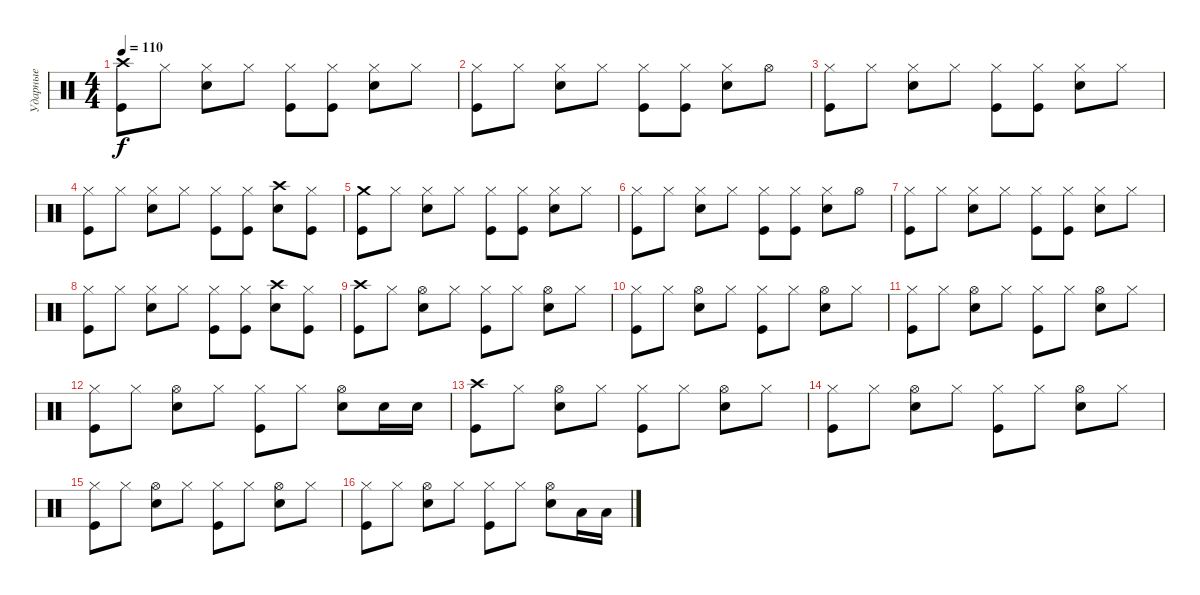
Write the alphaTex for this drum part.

\track ("Ударные" "Ударные") {solo instrument percussion}
\staff {score}
\articulation defaults
\ts (4 4)
\tempo 110
\clef neutral
\ks c
("Kick (hit)" "Crash high (hit)").8{dy f} "Hi-Hat (closed)".8 ("Snare (hit) 2" "Hi-Hat (closed)").8 "Hi-Hat (closed)".8 ("Kick (hit)" "Hi-Hat (closed)").8 ("Kick (hit)" "Hi-Hat (closed)").8 ("Snare (hit) 2" "Hi-Hat (closed)").8 "Hi-Hat (closed)".8 |
("Kick (hit)" "Hi-Hat (closed)").8 "Hi-Hat (closed)".8 ("Snare (hit) 2" "Hi-Hat (closed)").8 "Hi-Hat (closed)".8 ("Kick (hit)" "Hi-Hat (closed)").8 ("Kick (hit)" "Hi-Hat (closed)").8 ("Snare (hit) 2" "Hi-Hat (closed)").8 "Hi-Hat (open)".8 |
("Kick (hit)" "Hi-Hat (closed)").8 "Hi-Hat (closed)".8 ("Snare (hit) 2" "Hi-Hat (closed)").8 "Hi-Hat (closed)".8 ("Kick (hit)" "Hi-Hat (closed)").8 ("Kick (hit)" "Hi-Hat (closed)").8 ("Snare (hit) 2" "Hi-Hat (closed)").8 "Hi-Hat (closed)".8 |
("Kick (hit)" "Hi-Hat (closed)").8 "Hi-Hat (closed)".8 ("Snare (hit) 2" "Hi-Hat (closed)").8 "Hi-Hat (closed)".8 ("Kick (hit)" "Hi-Hat (closed)").8 ("Kick (hit)" "Hi-Hat (closed)").8 ("Snare (hit) 2" "Crash high (hit)").8 ("Kick (hit)" "Hi-Hat (closed)").8 |
("Kick (hit)" "Crash medium (hit)").8 "Hi-Hat (closed)".8 ("Snare (hit) 2" "Hi-Hat (closed)").8 "Hi-Hat (closed)".8 ("Kick (hit)" "Hi-Hat (closed)").8 ("Kick (hit)" "Hi-Hat (closed)").8 ("Snare (hit) 2" "Hi-Hat (closed)").8 "Hi-Hat (closed)".8 |
("Kick (hit)" "Hi-Hat (closed)").8 "Hi-Hat (closed)".8 ("Snare (hit) 2" "Hi-Hat (closed)").8 "Hi-Hat (closed)".8 ("Kick (hit)" "Hi-Hat (closed)").8 ("Kick (hit)" "Hi-Hat (closed)").8 ("Snare (hit) 2" "Hi-Hat (closed)").8 "Hi-Hat (open)".8 |
("Kick (hit)" "Hi-Hat (closed)").8 "Hi-Hat (closed)".8 ("Snare (hit) 2" "Hi-Hat (closed)").8 "Hi-Hat (closed)".8 ("Kick (hit)" "Hi-Hat (closed)").8 ("Kick (hit)" "Hi-Hat (closed)").8 ("Snare (hit) 2" "Hi-Hat (closed)").8 "Hi-Hat (closed)".8 |
("Kick (hit)" "Hi-Hat (closed)").8 "Hi-Hat (closed)".8 ("Snare (hit) 2" "Hi-Hat (closed)").8 "Hi-Hat (closed)".8 ("Kick (hit)" "Hi-Hat (closed)").8 ("Kick (hit)" "Hi-Hat (closed)").8 ("Snare (hit) 2" "Crash high (hit)").8 ("Kick (hit)" "Hi-Hat (closed)").8 |
("Kick (hit)" "Crash high (hit)").8 "Hi-Hat (closed)".8 ("Snare (hit) 2" "Hi-Hat (open)").8 "Hi-Hat (closed)".8 ("Kick (hit)" "Hi-Hat (closed)").8 "Hi-Hat (closed)".8 ("Snare (hit) 2" "Hi-Hat (open)").8 "Hi-Hat (closed)".8 |
("Kick (hit)" "Hi-Hat (closed)").8 "Hi-Hat (closed)".8 ("Snare (hit) 2" "Hi-Hat (open)").8 "Hi-Hat (closed)".8 ("Kick (hit)" "Hi-Hat (closed)").8 "Hi-Hat (closed)".8 ("Snare (hit) 2" "Hi-Hat (open)").8 "Hi-Hat (closed)".8 |
("Kick (hit)" "Hi-Hat (closed)").8 "Hi-Hat (closed)".8 ("Snare (hit) 2" "Hi-Hat (open)").8 "Hi-Hat (closed)".8 ("Kick (hit)" "Hi-Hat (closed)").8 "Hi-Hat (closed)".8 ("Snare (hit) 2" "Hi-Hat (open)").8 "Hi-Hat (closed)".8 |
("Kick (hit)" "Hi-Hat (closed)").8 "Hi-Hat (closed)".8 ("Snare (hit) 2" "Hi-Hat (open)").8 "Hi-Hat (closed)".8 ("Kick (hit)" "Hi-Hat (closed)").8 "Hi-Hat (closed)".8 ("Snare (hit) 2" "Hi-Hat (open)").8 "Snare (hit) 2".16 "Snare (hit) 2".16 |
("Kick (hit)" "Crash high (hit)").8 "Hi-Hat (closed)".8 ("Snare (hit) 2" "Hi-Hat (open)").8 "Hi-Hat (closed)".8 ("Kick (hit)" "Hi-Hat (closed)").8 "Hi-Hat (closed)".8 ("Snare (hit) 2" "Hi-Hat (open)").8 "Hi-Hat (closed)".8 |
("Kick (hit)" "Hi-Hat (closed)").8 "Hi-Hat (closed)".8 ("Snare (hit) 2" "Hi-Hat (open)").8 "Hi-Hat (closed)".8 ("Kick (hit)" "Hi-Hat (closed)").8 "Hi-Hat (closed)".8 ("Snare (hit) 2" "Hi-Hat (open)").8 "Hi-Hat (closed)".8 |
("Kick (hit)" "Hi-Hat (closed)").8 "Hi-Hat (closed)".8 ("Snare (hit) 2" "Hi-Hat (open)").8 "Hi-Hat (closed)".8 ("Kick (hit)" "Hi-Hat (closed)").8 "Hi-Hat (closed)".8 ("Snare (hit) 2" "Hi-Hat (open)").8 "Hi-Hat (closed)".8 |
("Kick (hit)" "Hi-Hat (closed)").8 "Hi-Hat (closed)".8 ("Snare (hit) 2" "Hi-Hat (open)").8 "Hi-Hat (closed)".8 ("Kick (hit)" "Hi-Hat (closed)").8 "Hi-Hat (closed)".8 ("Snare (hit) 2" "Hi-Hat (open)").8 "Low Tom (hit)".16 "Low Tom (hit)".16
